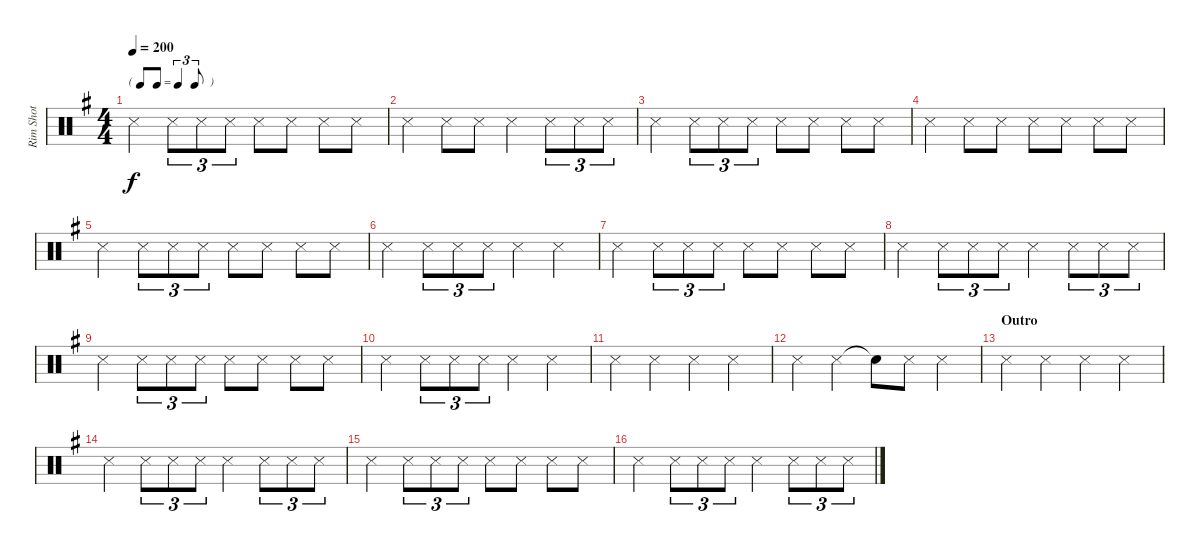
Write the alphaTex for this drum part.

\track ("Rim Shot" "Rim Shot") {instrument percussion}
\staff {score}
\articulation defaults
\ts (4 4)
\tf triplet8th
\tempo 200
\clef neutral
\ks g "Snare (side stick) 3".4{dy f} "Snare (side stick) 3".8{tu (3 2)} "Snare (side stick) 3".8{tu (3 2)} "Snare (side stick) 3".8{tu (3 2)} "Snare (side stick) 3".8 "Snare (side stick) 3".8 "Snare (side stick) 3".8 "Snare (side stick) 3".8
|
"Snare (side stick) 3".4 "Snare (side stick) 3".8 "Snare (side stick) 3".8 "Snare (side stick) 3".4 "Snare (side stick) 3".8{tu (3 2)} "Snare (side stick) 3".8{tu (3 2)} "Snare (side stick) 3".8{tu (3 2)} |
"Snare (side stick) 3".4 "Snare (side stick) 3".8{tu (3 2)} "Snare (side stick) 3".8{tu (3 2)} "Snare (side stick) 3".8{tu (3 2)} "Snare (side stick) 3".8 "Snare (side stick) 3".8 "Snare (side stick) 3".8 "Snare (side stick) 3".8 |
"Snare (side stick) 3".4 "Snare (side stick) 3".8 "Snare (side stick) 3".8 "Snare (side stick) 3".8 "Snare (side stick) 3".8 "Snare (side stick) 3".8 "Snare (side stick) 3".8 |
"Snare (side stick) 3".4 "Snare (side stick) 3".8{tu (3 2)} "Snare (side stick) 3".8{tu (3 2)} "Snare (side stick) 3".8{tu (3 2)} "Snare (side stick) 3".8 "Snare (side stick) 3".8 "Snare (side stick) 3".8 "Snare (side stick) 3".8 |
"Snare (side stick) 3".4 "Snare (side stick) 3".8{tu (3 2)} "Snare (side stick) 3".8{tu (3 2)} "Snare (side stick) 3".8{tu (3 2)} "Snare (side stick) 3".4 "Snare (side stick) 3".4 |
"Snare (side stick) 3".4 "Snare (side stick) 3".8{tu (3 2)} "Snare (side stick) 3".8{tu (3 2)} "Snare (side stick) 3".8{tu (3 2)} "Snare (side stick) 3".8 "Snare (side stick) 3".8 "Snare (side stick) 3".8 "Snare (side stick) 3".8 |
"Snare (side stick) 3".4 "Snare (side stick) 3".8{tu (3 2)} "Snare (side stick) 3".8{tu (3 2)} "Snare (side stick) 3".8{tu (3 2)} "Snare (side stick) 3".4 "Snare (side stick) 3".8{tu (3 2)} "Snare (side stick) 3".8{tu (3 2)} "Snare (side stick) 3".8{tu (3 2)} |
"Snare (side stick) 3".4 "Snare (side stick) 3".8{tu (3 2)} "Snare (side stick) 3".8{tu (3 2)} "Snare (side stick) 3".8{tu (3 2)} "Snare (side stick) 3".8 "Snare (side stick) 3".8 "Snare (side stick) 3".8 "Snare (side stick) 3".8 |
"Snare (side stick) 3".4 "Snare (side stick) 3".8{tu (3 2)} "Snare (side stick) 3".8{tu (3 2)} "Snare (side stick) 3".8{tu (3 2)} "Snare (side stick) 3".4 "Snare (side stick) 3".4 |
"Snare (side stick) 3".4 "Snare (side stick) 3".4 "Snare (side stick) 3".4 "Snare (side stick) 3".4 |
"Snare (side stick) 3".4 "Snare (side stick) 3".4 "Snare (hit)"{t}.8 "Snare (side stick) 3".8 "Snare (side stick) 3".4 |
\section ("" "Outro")
"Snare (side stick) 3".4 "Snare (side stick) 3".4 "Snare (side stick) 3".4 "Snare (side stick) 3".4 |
"Snare (side stick) 3".4 "Snare (side stick) 3".8{tu (3 2)} "Snare (side stick) 3".8{tu (3 2)} "Snare (side stick) 3".8{tu (3 2)} "Snare (side stick) 3".4 "Snare (side stick) 3".8{tu (3 2)} "Snare (side stick) 3".8{tu (3 2)} "Snare (side stick) 3".8{tu (3 2)} |
"Snare (side stick) 3".4 "Snare (side stick) 3".8{tu (3 2)} "Snare (side stick) 3".8{tu (3 2)} "Snare (side stick) 3".8{tu (3 2)} "Snare (side stick) 3".8 "Snare (side stick) 3".8 "Snare (side stick) 3".8 "Snare (side stick) 3".8 |
"Snare (side stick) 3".4 "Snare (side stick) 3".8{tu (3 2)} "Snare (side stick) 3".8{tu (3 2)} "Snare (side stick) 3".8{tu (3 2)} "Snare (side stick) 3".4 "Snare (side stick) 3".8{tu (3 2)} "Snare (side stick) 3".8{tu (3 2)} "Snare (side stick) 3".8{tu (3 2)}
